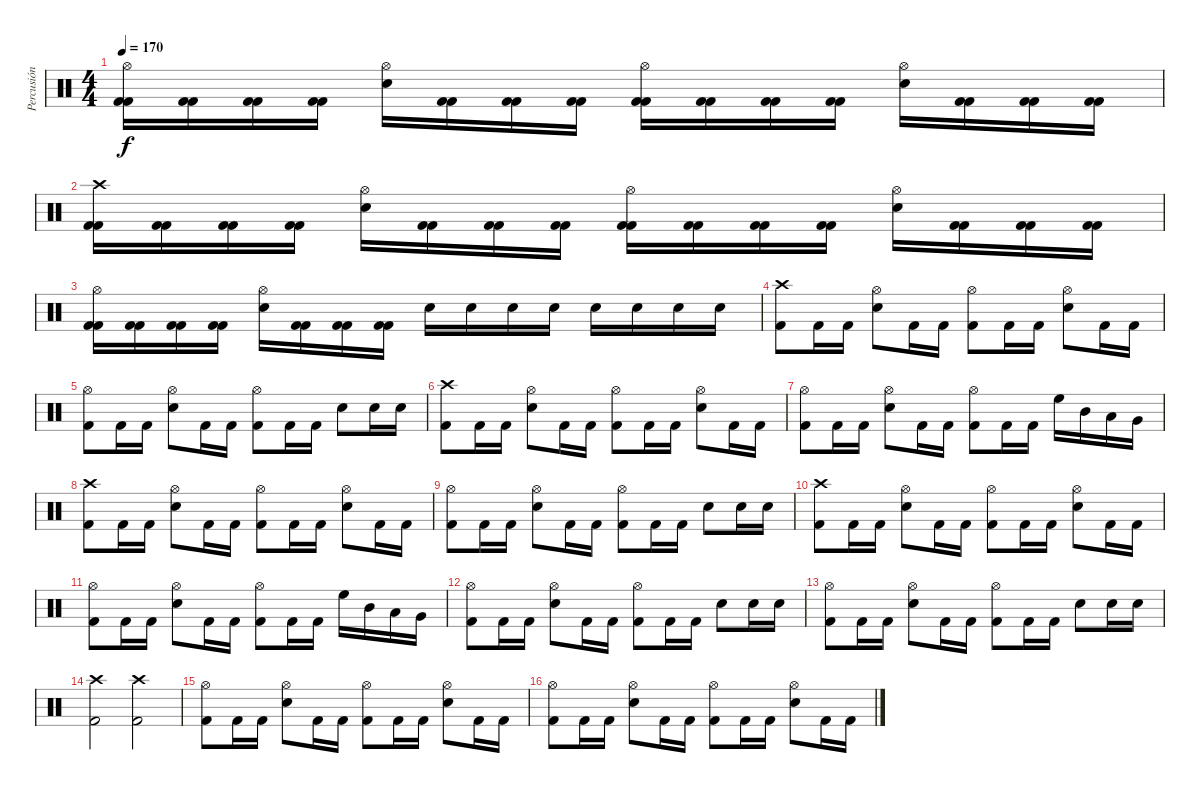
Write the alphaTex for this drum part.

\track ("Percusión" "Percusión") {instrument percussion}
\staff {score}
\articulation defaults
\ts (4 4)
\tempo 170
\clef neutral
\ks c
("Hi-Hat (open)" "Kick (hit) 2" "Kick (hit) 2").16{dy f} ("Kick (hit) 2" "Kick (hit) 2").16 ("Kick (hit) 2" "Kick (hit) 2").16 ("Kick (hit) 2" "Kick (hit) 2").16 ("Hi-Hat (open)" "Electric Snare (hit)").16 ("Kick (hit) 2" "Kick (hit) 2").16 ("Kick (hit) 2" "Kick (hit) 2").16 ("Kick (hit) 2" "Kick (hit) 2").16 ("Hi-Hat (open)" "Kick (hit) 2" "Kick (hit) 2").16 ("Kick (hit) 2" "Kick (hit) 2").16 ("Kick (hit) 2" "Kick (hit) 2").16 ("Kick (hit) 2" "Kick (hit) 2").16 ("Hi-Hat (open)" "Electric Snare (hit)").16 ("Kick (hit) 2" "Kick (hit) 2").16 ("Kick (hit) 2" "Kick (hit) 2").16 ("Kick (hit) 2" "Kick (hit) 2").16 |
("Crash high (hit)" "Kick (hit) 2" "Kick (hit) 2").16 ("Kick (hit) 2" "Kick (hit) 2").16 ("Kick (hit) 2" "Kick (hit) 2").16 ("Kick (hit) 2" "Kick (hit) 2").16 ("Hi-Hat (open)" "Electric Snare (hit)").16 ("Kick (hit) 2" "Kick (hit) 2").16 ("Kick (hit) 2" "Kick (hit) 2").16 ("Kick (hit) 2" "Kick (hit) 2").16 ("Hi-Hat (open)" "Kick (hit) 2" "Kick (hit) 2").16 ("Kick (hit) 2" "Kick (hit) 2").16 ("Kick (hit) 2" "Kick (hit) 2").16 ("Kick (hit) 2" "Kick (hit) 2").16 ("Hi-Hat (open)" "Electric Snare (hit)").16 ("Kick (hit) 2" "Kick (hit) 2").16 ("Kick (hit) 2" "Kick (hit) 2").16 ("Kick (hit) 2" "Kick (hit) 2").16 |
("Hi-Hat (open)" "Kick (hit) 2" "Kick (hit) 2").16 ("Kick (hit) 2" "Kick (hit) 2").16 ("Kick (hit) 2" "Kick (hit) 2").16 ("Kick (hit) 2" "Kick (hit) 2").16 ("Hi-Hat (open)" "Electric Snare (hit)").16 ("Kick (hit) 2" "Kick (hit) 2").16 ("Kick (hit) 2" "Kick (hit) 2").16 ("Kick (hit) 2" "Kick (hit) 2").16 "Electric Snare (hit)".16 "Electric Snare (hit)".16 "Electric Snare (hit)".16 "Electric Snare (hit)".16 "Electric Snare (hit)".16 "Electric Snare (hit)".16 "Electric Snare (hit)".16 "Electric Snare (hit)".16 |
("Crash high (hit)" "Kick (hit) 2").8 "Kick (hit) 2".16 "Kick (hit) 2".16 ("Hi-Hat (open)" "Electric Snare (hit)").8 "Kick (hit) 2".16 "Kick (hit) 2".16 ("Hi-Hat (open)" "Kick (hit) 2").8 "Kick (hit) 2".16 "Kick (hit) 2".16 ("Hi-Hat (open)" "Electric Snare (hit)").8 "Kick (hit) 2".16 "Kick (hit) 2".16 |
("Hi-Hat (open)" "Kick (hit) 2").8 "Kick (hit) 2".16 "Kick (hit) 2".16 ("Hi-Hat (open)" "Electric Snare (hit)").8 "Kick (hit) 2".16 "Kick (hit) 2".16 ("Hi-Hat (open)" "Kick (hit) 2").8 "Kick (hit) 2".16 "Kick (hit) 2".16 "Electric Snare (hit)".8 "Electric Snare (hit)".16 "Electric Snare (hit)".16 |
("Crash high (hit)" "Kick (hit) 2").8 "Kick (hit) 2".16 "Kick (hit) 2".16 ("Hi-Hat (open)" "Electric Snare (hit)").8 "Kick (hit) 2".16 "Kick (hit) 2".16 ("Hi-Hat (open)" "Kick (hit) 2").8 "Kick (hit) 2".16 "Kick (hit) 2".16 ("Hi-Hat (open)" "Electric Snare (hit)").8 "Kick (hit) 2".16 "Kick (hit) 2".16 |
("Hi-Hat (open)" "Kick (hit) 2").8 "Kick (hit) 2".16 "Kick (hit) 2".16 ("Hi-Hat (open)" "Electric Snare (hit)").8 "Kick (hit) 2".16 "Kick (hit) 2".16 ("Hi-Hat (open)" "Kick (hit) 2").8 "Kick (hit) 2".16 "Kick (hit) 2".16 "High Floor Tom (hit)".16 "Mid Tom (hit)".16 "Low Tom (hit)".16 "Very Low Tom (hit)".16 |
("Crash high (hit)" "Kick (hit) 2").8 "Kick (hit) 2".16 "Kick (hit) 2".16 ("Hi-Hat (open)" "Electric Snare (hit)").8 "Kick (hit) 2".16 "Kick (hit) 2".16 ("Hi-Hat (open)" "Kick (hit) 2").8 "Kick (hit) 2".16 "Kick (hit) 2".16 ("Hi-Hat (open)" "Electric Snare (hit)").8 "Kick (hit) 2".16 "Kick (hit) 2".16 |
("Hi-Hat (open)" "Kick (hit) 2").8 "Kick (hit) 2".16 "Kick (hit) 2".16 ("Hi-Hat (open)" "Electric Snare (hit)").8 "Kick (hit) 2".16 "Kick (hit) 2".16 ("Hi-Hat (open)" "Kick (hit) 2").8 "Kick (hit) 2".16 "Kick (hit) 2".16 "Electric Snare (hit)".8 "Electric Snare (hit)".16 "Electric Snare (hit)".16 |
("Crash high (hit)" "Kick (hit) 2").8 "Kick (hit) 2".16 "Kick (hit) 2".16 ("Hi-Hat (open)" "Electric Snare (hit)").8 "Kick (hit) 2".16 "Kick (hit) 2".16 ("Hi-Hat (open)" "Kick (hit) 2").8 "Kick (hit) 2".16 "Kick (hit) 2".16 ("Hi-Hat (open)" "Electric Snare (hit)").8 "Kick (hit) 2".16 "Kick (hit) 2".16 |
("Hi-Hat (open)" "Kick (hit) 2").8 "Kick (hit) 2".16 "Kick (hit) 2".16 ("Hi-Hat (open)" "Electric Snare (hit)").8 "Kick (hit) 2".16 "Kick (hit) 2".16 ("Hi-Hat (open)" "Kick (hit) 2").8 "Kick (hit) 2".16 "Kick (hit) 2".16 "High Floor Tom (hit)".16 "Mid Tom (hit)".16 "Low Tom (hit)".16 "Very Low Tom (hit)".16 |
("Hi-Hat (open)" "Kick (hit) 2").8 "Kick (hit) 2".16 "Kick (hit) 2".16 ("Hi-Hat (open)" "Electric Snare (hit)").8 "Kick (hit) 2".16 "Kick (hit) 2".16 ("Hi-Hat (open)" "Kick (hit) 2").8 "Kick (hit) 2".16 "Kick (hit) 2".16 "Electric Snare (hit)".8 "Electric Snare (hit)".16 "Electric Snare (hit)".16 |
("Hi-Hat (open)" "Kick (hit) 2").8 "Kick (hit) 2".16 "Kick (hit) 2".16 ("Hi-Hat (open)" "Electric Snare (hit)").8 "Kick (hit) 2".16 "Kick (hit) 2".16 ("Hi-Hat (open)" "Kick (hit) 2").8 "Kick (hit) 2".16 "Kick (hit) 2".16 "Electric Snare (hit)".8 "Electric Snare (hit)".16 "Electric Snare (hit)".16 |
("Crash high (hit)" "Kick (hit) 2").2 ("Crash high (hit)" "Kick (hit) 2").2 |
("Hi-Hat (open)" "Kick (hit) 2").8 "Kick (hit) 2".16 "Kick (hit) 2".16 ("Hi-Hat (open)" "Electric Snare (hit)").8 "Kick (hit) 2".16 "Kick (hit) 2".16 ("Hi-Hat (open)" "Kick (hit) 2").8 "Kick (hit) 2".16 "Kick (hit) 2".16 ("Hi-Hat (open)" "Electric Snare (hit)").8 "Kick (hit) 2".16 "Kick (hit) 2".16 |
("Hi-Hat (open)" "Kick (hit) 2").8 "Kick (hit) 2".16 "Kick (hit) 2".16 ("Hi-Hat (open)" "Electric Snare (hit)").8 "Kick (hit) 2".16 "Kick (hit) 2".16 ("Hi-Hat (open)" "Kick (hit) 2").8 "Kick (hit) 2".16 "Kick (hit) 2".16 ("Hi-Hat (open)" "Electric Snare (hit)").8 "Kick (hit) 2".16 "Kick (hit) 2".16
